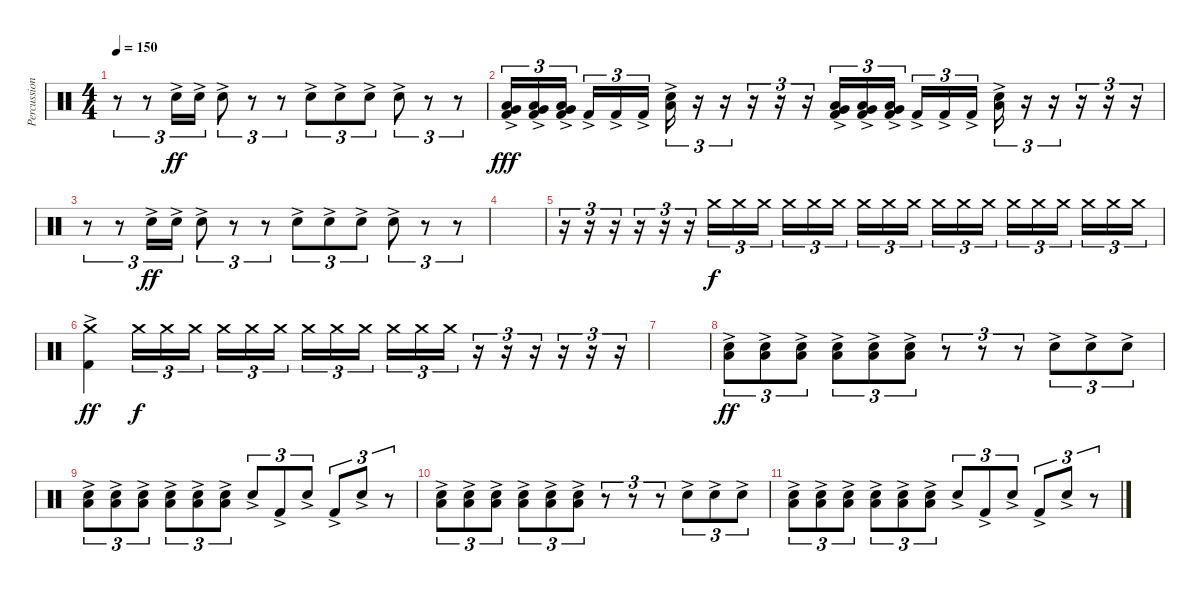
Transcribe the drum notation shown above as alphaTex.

\track ("Percussion" "Percussion") {instrument percussion}
\staff {score}
\articulation defaults
\ts (4 4)
\tempo 150
\clef neutral
\ks c
r.8{tu (3 2) dy ff} r.8{tu (3 2)} "Snare (hit) 2"{ac}.16{tu (3 2)} "Snare (hit) 2"{ac}.16{tu (3 2)} "Snare (hit) 2"{ac}.8{tu (3 2)} r.8{tu (3 2)} r.8{tu (3 2)} "Snare (hit) 2"{ac}.8{tu (3 2)} "Snare (hit) 2"{ac}.8{tu (3 2)} "Snare (hit) 2"{ac}.8{tu (3 2)} "Snare (hit) 2"{ac}.8{tu (3 2)} r.8{tu (3 2)} r.8{tu (3 2)} |
("Very Low Tom (hit)"{ac} "Low Floor Tom (hit)"{ac} "Kick (hit) 2"{ac}).16{tu (3 2) dy fff} ("Very Low Tom (hit)"{ac} "Low Floor Tom (hit)"{ac} "Kick (hit) 2"{ac}).16{tu (3 2)} ("Very Low Tom (hit)"{ac} "Low Floor Tom (hit)"{ac} "Kick (hit) 2"{ac}).16{tu (3 2) beam splitsecondary} "Kick (hit) 2"{ac}.16{tu (3 2)} "Kick (hit) 2"{ac}.16{tu (3 2)} "Kick (hit) 2"{ac}.16{tu (3 2)} ("Low Floor Tom (hit)"{ac} "Snare (hit) 2"{ac}).16{tu (3 2)} r.16{tu (3 2)} r.16{tu (3 2)} r.16{tu (3 2)} r.16{tu (3 2)} r.16{tu (3 2)} ("Very Low Tom (hit)"{ac} "Low Floor Tom (hit)"{ac} "Kick (hit) 2"{ac}).16{tu (3 2)} ("Very Low Tom (hit)"{ac} "Low Floor Tom (hit)"{ac} "Kick (hit) 2"{ac}).16{tu (3 2)} ("Very Low Tom (hit)"{ac} "Low Floor Tom (hit)"{ac} "Kick (hit) 2"{ac}).16{tu (3 2) beam splitsecondary} "Kick (hit) 2"{ac}.16{tu (3 2)} "Kick (hit) 2"{ac}.16{tu (3 2)} "Kick (hit) 2"{ac}.16{tu (3 2)} ("Low Floor Tom (hit)"{ac} "Snare (hit) 2"{ac}).16{tu (3 2)} r.16{tu (3 2)} r.16{tu (3 2)} r.16{tu (3 2)} r.16{tu (3 2)} r.16{tu (3 2)} |
r.8{tu (3 2)} r.8{tu (3 2)} "Snare (hit) 2"{ac}.16{tu (3 2) dy ff} "Snare (hit) 2"{ac}.16{tu (3 2)} "Snare (hit) 2"{ac}.8{tu (3 2)} r.8{tu (3 2)} r.8{tu (3 2)} "Snare (hit) 2"{ac}.8{tu (3 2)} "Snare (hit) 2"{ac}.8{tu (3 2)} "Snare (hit) 2"{ac}.8{tu (3 2)} "Snare (hit) 2"{ac}.8{tu (3 2)} r.8{tu (3 2)} r.8{tu (3 2)} |
|
r.16{tu (3 2)} r.16{tu (3 2)} r.16{tu (3 2)} r.16{tu (3 2)} r.16{tu (3 2)} r.16{tu (3 2)} "Crash medium (hit)".16{tu (3 2) dy f} "Crash medium (hit)".16{tu (3 2)} "Crash medium (hit)".16{tu (3 2) beam splitsecondary} "Crash medium (hit)".16{tu (3 2)} "Crash medium (hit)".16{tu (3 2)} "Crash medium (hit)".16{tu (3 2)} "Crash medium (hit)".16{tu (3 2)} "Crash medium (hit)".16{tu (3 2)} "Crash medium (hit)".16{tu (3 2) beam splitsecondary} "Crash medium (hit)".16{tu (3 2)} "Crash medium (hit)".16{tu (3 2)} "Crash medium (hit)".16{tu (3 2)} "Crash medium (hit)".16{tu (3 2)} "Crash medium (hit)".16{tu (3 2)} "Crash medium (hit)".16{tu (3 2) beam splitsecondary} "Crash medium (hit)".16{tu (3 2)} "Crash medium (hit)".16{tu (3 2)} "Crash medium (hit)".16{tu (3 2)} |
("Crash medium (hit)"{ac} "Kick (hit) 2"{ac}).4{dy ff} "Crash medium (hit)".16{tu (3 2) dy f} "Crash medium (hit)".16{tu (3 2)} "Crash medium (hit)".16{tu (3 2) beam splitsecondary} "Crash medium (hit)".16{tu (3 2)} "Crash medium (hit)".16{tu (3 2)} "Crash medium (hit)".16{tu (3 2)} "Crash medium (hit)".16{tu (3 2)} "Crash medium (hit)".16{tu (3 2)} "Crash medium (hit)".16{tu (3 2) beam splitsecondary} "Crash medium (hit)".16{tu (3 2)} "Crash medium (hit)".16{tu (3 2)} "Crash medium (hit)".16{tu (3 2)} r.16{tu (3 2)} r.16{tu (3 2)} r.16{tu (3 2)} r.16{tu (3 2)} r.16{tu (3 2)} r.16{tu (3 2)} |
|
("Low Floor Tom (hit)"{ac} "Snare (hit) 2"{ac}).8{tu (3 2) dy ff} ("Low Floor Tom (hit)"{ac} "Snare (hit) 2"{ac}).8{tu (3 2)} ("Low Floor Tom (hit)"{ac} "Snare (hit) 2"{ac}).8{tu (3 2)} ("Low Floor Tom (hit)"{ac} "Snare (hit) 2"{ac}).8{tu (3 2)} ("Low Floor Tom (hit)"{ac} "Snare (hit) 2"{ac}).8{tu (3 2)} ("Low Floor Tom (hit)"{ac} "Snare (hit) 2"{ac}).8{tu (3 2)} r.8{tu (3 2)} r.8{tu (3 2)} r.8{tu (3 2)} "Snare (hit) 2"{ac}.8{tu (3 2)} "Snare (hit) 2"{ac}.8{tu (3 2)} "Snare (hit) 2"{ac}.8{tu (3 2)} |
("Low Floor Tom (hit)"{ac} "Snare (hit) 2"{ac}).8{tu (3 2)} ("Low Floor Tom (hit)"{ac} "Snare (hit) 2"{ac}).8{tu (3 2)} ("Low Floor Tom (hit)"{ac} "Snare (hit) 2"{ac}).8{tu (3 2)} ("Low Floor Tom (hit)"{ac} "Snare (hit) 2"{ac}).8{tu (3 2)} ("Low Floor Tom (hit)"{ac} "Snare (hit) 2"{ac}).8{tu (3 2)} ("Low Floor Tom (hit)"{ac} "Snare (hit) 2"{ac}).8{tu (3 2)} "Snare (hit) 2"{ac}.8{tu (3 2)} "Kick (hit) 2"{ac}.8{tu (3 2)} "Snare (hit) 2"{ac}.8{tu (3 2)} "Kick (hit) 2"{ac}.8{tu (3 2)} "Snare (hit) 2"{ac}.8{tu (3 2)} r.8{tu (3 2)} |
("Low Floor Tom (hit)"{ac} "Snare (hit) 2"{ac}).8{tu (3 2)} ("Low Floor Tom (hit)"{ac} "Snare (hit) 2"{ac}).8{tu (3 2)} ("Low Floor Tom (hit)"{ac} "Snare (hit) 2"{ac}).8{tu (3 2)} ("Low Floor Tom (hit)"{ac} "Snare (hit) 2"{ac}).8{tu (3 2)} ("Low Floor Tom (hit)"{ac} "Snare (hit) 2"{ac}).8{tu (3 2)} ("Low Floor Tom (hit)"{ac} "Snare (hit) 2"{ac}).8{tu (3 2)} r.8{tu (3 2)} r.8{tu (3 2)} r.8{tu (3 2)} "Snare (hit) 2"{ac}.8{tu (3 2)} "Snare (hit) 2"{ac}.8{tu (3 2)} "Snare (hit) 2"{ac}.8{tu (3 2)} |
("Low Floor Tom (hit)"{ac} "Snare (hit) 2"{ac}).8{tu (3 2)} ("Low Floor Tom (hit)"{ac} "Snare (hit) 2"{ac}).8{tu (3 2)} ("Low Floor Tom (hit)"{ac} "Snare (hit) 2"{ac}).8{tu (3 2)} ("Low Floor Tom (hit)"{ac} "Snare (hit) 2"{ac}).8{tu (3 2)} ("Low Floor Tom (hit)"{ac} "Snare (hit) 2"{ac}).8{tu (3 2)} ("Low Floor Tom (hit)"{ac} "Snare (hit) 2"{ac}).8{tu (3 2)} "Snare (hit) 2"{ac}.8{tu (3 2)} "Kick (hit) 2"{ac}.8{tu (3 2)} "Snare (hit) 2"{ac}.8{tu (3 2)} "Kick (hit) 2"{ac}.8{tu (3 2)} "Snare (hit) 2"{ac}.8{tu (3 2)} r.8{tu (3 2)}
